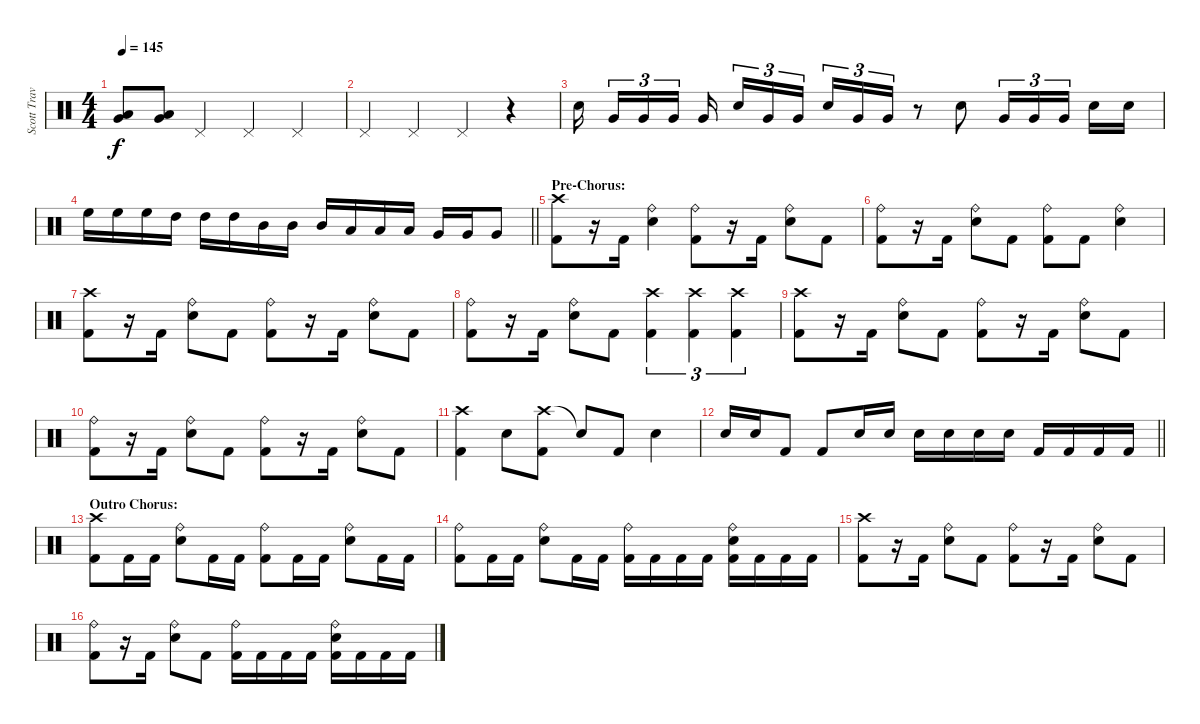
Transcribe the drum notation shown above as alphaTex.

\track ("Scott Travis" "Scott Trav") {instrument percussion}
\staff {score}
\articulation defaults
\ts (4 4)
\tempo 145
\clef neutral
\ks c
("Low Tom (hit)" "Very Low Tom (hit)").8{dy f} ("Low Tom (hit)" "Very Low Tom (hit)").8 "Pedal Hi-Hat (hit)".4 "Pedal Hi-Hat (hit)".4 "Pedal Hi-Hat (hit)".4 |
"Pedal Hi-Hat (hit)".4 "Pedal Hi-Hat (hit)".4 "Pedal Hi-Hat (hit)".4 r.4 |
"Snare (hit) 2".16{beam splitsecondary} "Very Low Tom (hit)".16{tu (3 2)} "Very Low Tom (hit)".16{tu (3 2)} "Very Low Tom (hit)".16{tu (3 2) beam splitsecondary} "Very Low Tom (hit)".16 "Snare (hit) 2".16{tu (3 2)} "Very Low Tom (hit)".16{tu (3 2)} "Very Low Tom (hit)".16{tu (3 2) beam splitsecondary} "Snare (hit) 2".16{tu (3 2)} "Very Low Tom (hit)".16{tu (3 2)} "Very Low Tom (hit)".16{tu (3 2)} r.8 "Snare (hit) 2".8 "Very Low Tom (hit)".16{tu (3 2)} "Very Low Tom (hit)".16{tu (3 2)} "Very Low Tom (hit)".16{tu (3 2) beam splitsecondary} "Snare (hit) 2".16 "Snare (hit) 2".16 |
\barLineRight lightlight "High Floor Tom (hit)".16 "High Floor Tom (hit)".16 "High Floor Tom (hit)".16 "High Tom (hit)".16 "High Tom (hit)".16 "High Tom (hit)".16 "Mid Tom (hit)".16 "Mid Tom (hit)".16 "Mid Tom (hit)".16 "Low Tom (hit)".16 "Low Tom (hit)".16 "Low Tom (hit)".16 "Very Low Tom (hit)".16 "Very Low Tom (hit)".16 "Very Low Tom (hit)".8
|
\section ("" "Pre-Chorus:")
("Crash high (hit)" "Kick (hit) 2").8 r.16 "Kick (hit) 2".16 ("Ride (bell)" "Snare (hit) 2").4 ("Ride (bell)" "Kick (hit) 2").8 r.16 "Kick (hit) 2".16 ("Ride (bell)" "Snare (hit) 2").8 "Kick (hit) 2".8 |
("Ride (bell)" "Kick (hit) 2").8 r.16 "Kick (hit) 2".16 ("Ride (bell)" "Snare (hit) 2").8 "Kick (hit) 2".8 ("Ride (bell)" "Kick (hit) 2").8 "Kick (hit) 2".8 ("Ride (bell)" "Snare (hit) 2").4 |
("Crash high (hit)" "Kick (hit) 2").8 r.16 "Kick (hit) 2".16 ("Ride (bell)" "Snare (hit) 2").8 "Kick (hit) 2".8 ("Ride (bell)" "Kick (hit) 2").8 r.16 "Kick (hit) 2".16 ("Ride (bell)" "Snare (hit) 2").8 "Kick (hit) 2".8 |
("Ride (bell)" "Kick (hit) 2").8 r.16 "Kick (hit) 2".16 ("Ride (bell)" "Snare (hit) 2").8 "Kick (hit) 2".8 ("Crash high (hit)" "Kick (hit) 2").4{tu (3 2)} ("Crash high (hit)" "Kick (hit) 2").4{tu (3 2)} ("Crash high (hit)" "Kick (hit) 2").4{tu (3 2)} |
("Crash high (hit)" "Kick (hit) 2").8 r.16 "Kick (hit) 2".16 ("Ride (bell)" "Snare (hit) 2").8 "Kick (hit) 2".8 ("Ride (bell)" "Kick (hit) 2").8 r.16 "Kick (hit) 2".16 ("Ride (bell)" "Snare (hit) 2").8 "Kick (hit) 2".8 |
("Ride (bell)" "Kick (hit) 2").8 r.16 "Kick (hit) 2".16 ("Ride (bell)" "Snare (hit) 2").8 "Kick (hit) 2".8 ("Ride (bell)" "Kick (hit) 2").8 r.16 "Kick (hit) 2".16 ("Ride (bell)" "Snare (hit) 2").8 "Kick (hit) 2".8 |
("Crash high (hit)" "Kick (hit) 2").4 "Snare (hit) 2".8 ("Crash high (hit)" "Kick (hit) 2").8 "Snare (hit)"{t}.8 "Kick (hit) 2".8 "Snare (hit) 2".4 |
\barLineRight lightlight "Snare (hit) 2".16 "Snare (hit) 2".16 "Kick (hit) 2".8 "Kick (hit) 2".8 "Snare (hit) 2".16 "Snare (hit) 2".16 "Snare (hit) 2".16 "Snare (hit) 2".16 "Snare (hit) 2".16 "Snare (hit) 2".16 "Kick (hit) 2".16 "Kick (hit) 2".16 "Kick (hit) 2".16 "Kick (hit) 2".16
|
\section ("" "Outro Chorus:")
("Crash high (hit)" "Kick (hit) 2").8 "Kick (hit) 2".16 "Kick (hit) 2".16 ("Ride (bell)" "Snare (hit) 2").8 "Kick (hit) 2".16 "Kick (hit) 2".16 ("Ride (bell)" "Kick (hit) 2").8 "Kick (hit) 2".16 "Kick (hit) 2".16 ("Ride (bell)" "Snare (hit) 2").8 "Kick (hit) 2".16 "Kick (hit) 2".16 |
("Ride (bell)" "Kick (hit) 2").8 "Kick (hit) 2".16 "Kick (hit) 2".16 ("Ride (bell)" "Snare (hit) 2").8 "Kick (hit) 2".16 "Kick (hit) 2".16 ("Ride (bell)" "Kick (hit) 2").16 "Kick (hit) 2".16 "Kick (hit) 2".16 "Kick (hit) 2".16 ("Ride (bell)" "Snare (hit) 2" "Kick (hit) 2").16 "Kick (hit) 2".16 "Kick (hit) 2".16 "Kick (hit) 2".16 |
("Crash high (hit)" "Kick (hit) 2").8 r.16 "Kick (hit) 2".16 ("Ride (bell)" "Snare (hit) 2").8 "Kick (hit) 2".8 ("Ride (bell)" "Kick (hit) 2").8 r.16 "Kick (hit) 2".16 ("Ride (bell)" "Snare (hit) 2").8 "Kick (hit) 2".8 |
("Ride (bell)" "Kick (hit) 2").8 r.16 "Kick (hit) 2".16 ("Ride (bell)" "Snare (hit) 2").8 "Kick (hit) 2".8 ("Ride (bell)" "Kick (hit) 2").16 "Kick (hit) 2".16 "Kick (hit) 2".16 "Kick (hit) 2".16 ("Ride (bell)" "Snare (hit) 2" "Kick (hit) 2").16 "Kick (hit) 2".16 "Kick (hit) 2".16 "Kick (hit) 2".16
